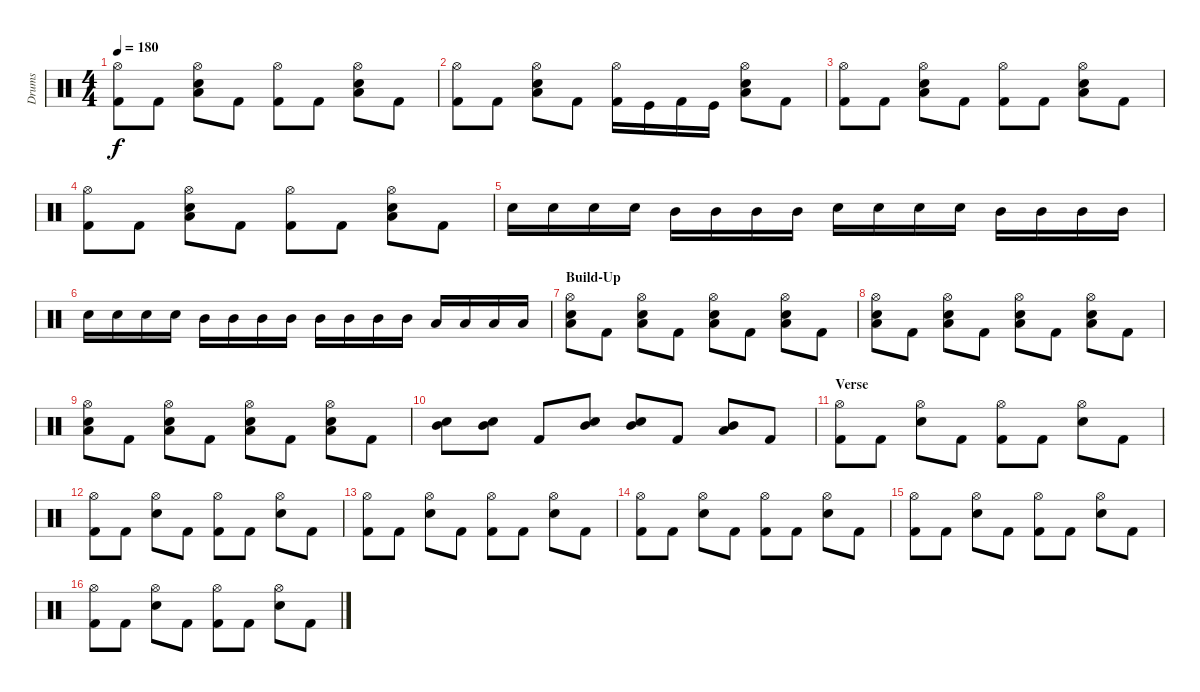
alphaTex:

\track ("Drums" "Drums") {instrument percussion}
\staff {score}
\articulation defaults
\ts (4 4)
\tempo 180
\clef neutral
\ks c
("Hi-Hat (open)" "Kick (hit) 2").8{dy f} "Kick (hit) 2".8 ("Hi-Hat (open)" "Electric Snare (hit)" "Low Tom (hit)").8 "Kick (hit) 2".8 ("Hi-Hat (open)" "Kick (hit) 2").8 "Kick (hit) 2".8 ("Hi-Hat (open)" "Electric Snare (hit)" "Low Tom (hit)").8 "Kick (hit) 2".8 |
("Hi-Hat (open)" "Kick (hit) 2").8 "Kick (hit) 2".8 ("Hi-Hat (open)" "Electric Snare (hit)" "Low Tom (hit)").8 "Kick (hit) 2".8 ("Hi-Hat (open)" "Kick (hit) 2").16 "Kick (hit)".16 "Kick (hit) 2".16 "Kick (hit)".16 ("Hi-Hat (open)" "Electric Snare (hit)" "Low Tom (hit)").8 "Kick (hit) 2".8 |
("Hi-Hat (open)" "Kick (hit) 2").8 "Kick (hit) 2".8 ("Hi-Hat (open)" "Electric Snare (hit)" "Low Tom (hit)").8 "Kick (hit) 2".8 ("Hi-Hat (open)" "Kick (hit) 2").8 "Kick (hit) 2".8 ("Hi-Hat (open)" "Electric Snare (hit)" "Low Tom (hit)").8 "Kick (hit) 2".8 |
("Hi-Hat (open)" "Kick (hit) 2").8 "Kick (hit) 2".8 ("Hi-Hat (open)" "Electric Snare (hit)" "Low Tom (hit)").8 "Kick (hit) 2".8 ("Hi-Hat (open)" "Kick (hit) 2").8 "Kick (hit) 2".8 ("Hi-Hat (open)" "Electric Snare (hit)" "Low Tom (hit)").8 "Kick (hit) 2".8 |
"Electric Snare (hit)".16 "Electric Snare (hit)".16 "Electric Snare (hit)".16 "Electric Snare (hit)".16 "Mid Tom (hit)".16 "Mid Tom (hit)".16 "Mid Tom (hit)".16 "Mid Tom (hit)".16 "Electric Snare (hit)".16 "Electric Snare (hit)".16 "Electric Snare (hit)".16 "Electric Snare (hit)".16 "Mid Tom (hit)".16 "Mid Tom (hit)".16 "Mid Tom (hit)".16 "Mid Tom (hit)".16 |
"Electric Snare (hit)".16 "Electric Snare (hit)".16 "Electric Snare (hit)".16 "Electric Snare (hit)".16 "Mid Tom (hit)".16 "Mid Tom (hit)".16 "Mid Tom (hit)".16 "Mid Tom (hit)".16 "Mid Tom (hit)".16 "Mid Tom (hit)".16 "Mid Tom (hit)".16 "Mid Tom (hit)".16 "Low Tom (hit)".16 "Low Tom (hit)".16 "Low Tom (hit)".16 "Low Tom (hit)".16 |
\section ("" "Build-Up")
("Hi-Hat (open)" "Electric Snare (hit)" "Low Tom (hit)").8 "Kick (hit) 2".8 ("Hi-Hat (open)" "Electric Snare (hit)" "Low Tom (hit)").8 "Kick (hit) 2".8 ("Hi-Hat (open)" "Electric Snare (hit)" "Low Tom (hit)").8 "Kick (hit) 2".8 ("Hi-Hat (open)" "Electric Snare (hit)" "Low Tom (hit)").8 "Kick (hit) 2".8 |
("Hi-Hat (open)" "Electric Snare (hit)" "Low Tom (hit)").8 "Kick (hit) 2".8 ("Hi-Hat (open)" "Electric Snare (hit)" "Low Tom (hit)").8 "Kick (hit) 2".8 ("Hi-Hat (open)" "Electric Snare (hit)" "Low Tom (hit)").8 "Kick (hit) 2".8 ("Hi-Hat (open)" "Electric Snare (hit)" "Low Tom (hit)").8 "Kick (hit) 2".8 |
("Hi-Hat (open)" "Electric Snare (hit)" "Low Tom (hit)").8 "Kick (hit) 2".8 ("Hi-Hat (open)" "Electric Snare (hit)" "Low Tom (hit)").8 "Kick (hit) 2".8 ("Hi-Hat (open)" "Electric Snare (hit)" "Low Tom (hit)").8 "Kick (hit) 2".8 ("Hi-Hat (open)" "Electric Snare (hit)" "Low Tom (hit)").8 "Kick (hit) 2".8 |
("Mid Tom (hit)" "Electric Snare (hit)").8 ("Mid Tom (hit)" "Electric Snare (hit)").8 "Kick (hit) 2".8 ("Mid Tom (hit)" "Electric Snare (hit)").8 ("Mid Tom (hit)" "Electric Snare (hit)").8 "Kick (hit) 2".8 ("Mid Tom (hit)" "Low Tom (hit)").8 "Kick (hit) 2".8 |
\section ("" "Verse")
("Hi-Hat (open)" "Kick (hit) 2").8 "Kick (hit) 2".8 ("Hi-Hat (open)" "Electric Snare (hit)").8 "Kick (hit) 2".8 ("Hi-Hat (open)" "Kick (hit) 2").8 "Kick (hit) 2".8 ("Hi-Hat (open)" "Electric Snare (hit)").8 "Kick (hit) 2".8 |
("Hi-Hat (open)" "Kick (hit) 2").8 "Kick (hit) 2".8 ("Hi-Hat (open)" "Electric Snare (hit)").8 "Kick (hit) 2".8 ("Hi-Hat (open)" "Kick (hit) 2").8 "Kick (hit) 2".8 ("Hi-Hat (open)" "Electric Snare (hit)").8 "Kick (hit) 2".8 |
("Hi-Hat (open)" "Kick (hit) 2").8 "Kick (hit) 2".8 ("Hi-Hat (open)" "Electric Snare (hit)").8 "Kick (hit) 2".8 ("Hi-Hat (open)" "Kick (hit) 2").8 "Kick (hit) 2".8 ("Hi-Hat (open)" "Electric Snare (hit)").8 "Kick (hit) 2".8 |
("Hi-Hat (open)" "Kick (hit) 2").8 "Kick (hit) 2".8 ("Hi-Hat (open)" "Electric Snare (hit)").8 "Kick (hit) 2".8 ("Hi-Hat (open)" "Kick (hit) 2").8 "Kick (hit) 2".8 ("Hi-Hat (open)" "Electric Snare (hit)").8 "Kick (hit) 2".8 |
("Hi-Hat (open)" "Kick (hit) 2").8 "Kick (hit) 2".8 ("Hi-Hat (open)" "Electric Snare (hit)").8 "Kick (hit) 2".8 ("Hi-Hat (open)" "Kick (hit) 2").8 "Kick (hit) 2".8 ("Hi-Hat (open)" "Electric Snare (hit)").8 "Kick (hit) 2".8 |
("Hi-Hat (open)" "Kick (hit) 2").8 "Kick (hit) 2".8 ("Hi-Hat (open)" "Electric Snare (hit)").8 "Kick (hit) 2".8 ("Hi-Hat (open)" "Kick (hit) 2").8 "Kick (hit) 2".8 ("Hi-Hat (open)" "Electric Snare (hit)").8 "Kick (hit) 2".8
